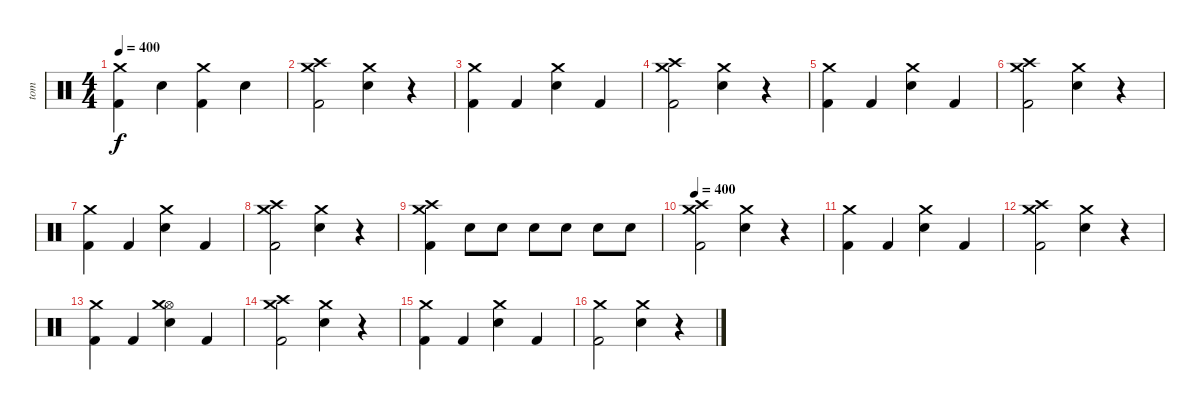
\track ("tom" "tom") {instrument percussion}
\staff {score}
\articulation defaults
\ts (4 4)
\tempo 400
\clef neutral
\ks c
("Crash medium (hit)" "Kick (hit) 2").4{dy f} "Electric Snare (hit)".4 ("Crash medium (hit)" "Kick (hit) 2").4 "Electric Snare (hit)".4 |
("Crash high (hit)" "Crash medium (hit)" "Kick (hit) 2").2 ("Crash medium (hit)" "Electric Snare (hit)").4 r.4 |
("Crash medium (hit)" "Kick (hit) 2").4 "Kick (hit) 2".4 ("Crash medium (hit)" "Electric Snare (hit)").4 "Kick (hit) 2".4 |
("Crash high (hit)" "Crash medium (hit)" "Kick (hit) 2").2 ("Crash medium (hit)" "Electric Snare (hit)").4 r.4 |
("Crash medium (hit)" "Kick (hit) 2").4 "Kick (hit) 2".4 ("Crash medium (hit)" "Electric Snare (hit)").4 "Kick (hit) 2".4 |
("Crash high (hit)" "Crash medium (hit)" "Kick (hit) 2").2 ("Crash medium (hit)" "Electric Snare (hit)").4 r.4 |
("Crash medium (hit)" "Kick (hit) 2").4 "Kick (hit) 2".4 ("Crash medium (hit)" "Electric Snare (hit)").4 "Kick (hit) 2".4 |
("Crash high (hit)" "Crash medium (hit)" "Kick (hit) 2").2 ("Crash medium (hit)" "Electric Snare (hit)").4 r.4 |
("Crash high (hit)" "Crash medium (hit)" "Kick (hit) 2").4 "Electric Snare (hit)".8 "Electric Snare (hit)".8 "Electric Snare (hit)".8 "Electric Snare (hit)".8 "Electric Snare (hit)".8 "Electric Snare (hit)".8 |
\tempo 400
("Crash high (hit)" "Crash medium (hit)" "Kick (hit) 2").2 ("Crash medium (hit)" "Electric Snare (hit)").4 r.4 |
("Crash medium (hit)" "Kick (hit) 2").4 "Kick (hit) 2".4 ("Crash medium (hit)" "Electric Snare (hit)").4 "Kick (hit) 2".4 |
("Crash high (hit)" "Crash medium (hit)" "Kick (hit) 2").2 ("Crash medium (hit)" "Electric Snare (hit)").4 r.4 |
("Crash medium (hit)" "Kick (hit) 2").4 "Kick (hit) 2".4 ("Hi-Hat (open)" "Crash medium (hit)" "Electric Snare (hit)").4 "Kick (hit) 2".4 |
("Crash high (hit)" "Crash medium (hit)" "Kick (hit) 2").2 ("Crash medium (hit)" "Electric Snare (hit)").4 r.4 |
("Crash medium (hit)" "Kick (hit) 2").4 "Kick (hit) 2".4 ("Crash medium (hit)" "Electric Snare (hit)").4 "Kick (hit) 2".4 |
("Crash medium (hit)" "Kick (hit) 2").2 ("Crash medium (hit)" "Electric Snare (hit)").4 r.4
